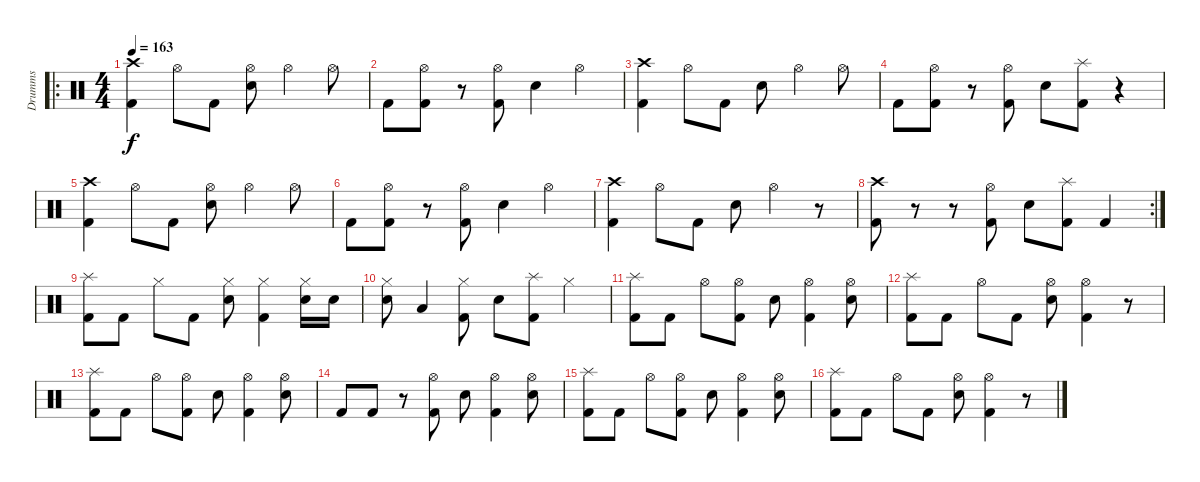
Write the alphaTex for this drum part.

\track ("Drumms" "Drumms") {instrument percussion}
\staff {score}
\articulation defaults
\ro
\ts (4 4)
\tempo 163
\clef neutral
\ks c
("Crash high (hit)" "Kick (hit) 2").4{dy f} "Hi-Hat (open)".8 "Kick (hit) 2".8 ("Hi-Hat (open)" "Snare (hit) 2").8 "Hi-Hat (open)".4 "Hi-Hat (open)".8 |
"Kick (hit) 2".8 ("Hi-Hat (open)" "Kick (hit) 2").8 r.8 ("Hi-Hat (open)" "Kick (hit) 2").8 "Snare (hit) 2".4 "Hi-Hat (open)".4 |
("Crash high (hit)" "Kick (hit) 2").4 "Hi-Hat (open)".8 "Kick (hit) 2".8 "Snare (hit) 2".8 "Hi-Hat (open)".4 "Hi-Hat (open)".8 |
"Kick (hit) 2".8 ("Hi-Hat (open)" "Kick (hit) 2").8 r.8 ("Hi-Hat (open)" "Kick (hit) 2").8 "Snare (hit) 2".8 ("Splash (hit)" "Kick (hit) 2").8 r.4 |
("Crash high (hit)" "Kick (hit) 2").4 "Hi-Hat (open)".8 "Kick (hit) 2".8 ("Hi-Hat (open)" "Snare (hit) 2").8 "Hi-Hat (open)".4 "Hi-Hat (open)".8 |
"Kick (hit) 2".8 ("Hi-Hat (open)" "Kick (hit) 2").8 r.8 ("Hi-Hat (open)" "Kick (hit) 2").8 "Snare (hit) 2".4 "Hi-Hat (open)".4 |
("Crash high (hit)" "Kick (hit) 2").4 "Hi-Hat (open)".8 "Kick (hit) 2".8 "Snare (hit) 2".8 "Hi-Hat (open)".4 r.8 |
\rc 2
("Crash high (hit)" "Kick (hit) 2").8 r.8 r.8 ("Hi-Hat (open)" "Kick (hit) 2").8 "Snare (hit) 2".8 ("Splash (hit)" "Kick (hit) 2").8 "Kick (hit) 2".4 |
("Splash (hit)" "Kick (hit) 2").8 "Kick (hit) 2".8 "Hi-Hat (closed)".8 "Kick (hit) 2".8 ("Hi-Hat (closed)" "Snare (hit) 2").8 ("Hi-Hat (closed)" "Kick (hit) 2").4 ("Hi-Hat (closed)" "Snare (hit) 2").16 "Snare (hit) 2".16 |
("Hi-Hat (closed)" "Snare (hit) 2").8 "Low Tom (hit)".4 ("Hi-Hat (closed)" "Kick (hit) 2").8 "Snare (hit) 2".8 ("Splash (hit)" "Kick (hit) 2").8 "Hi-Hat (closed)".4 |
("Splash (hit)" "Kick (hit) 2").8 "Kick (hit) 2".8 "Hi-Hat (open)".8 ("Hi-Hat (open)" "Kick (hit) 2").8 "Snare (hit) 2".8 ("Hi-Hat (open)" "Kick (hit) 2").4 ("Hi-Hat (open)" "Snare (hit) 2").8 |
("Splash (hit)" "Kick (hit) 2").8 "Kick (hit) 2".8 "Hi-Hat (open)".8 "Kick (hit) 2".8 ("Hi-Hat (open)" "Snare (hit) 2").8 ("Hi-Hat (open)" "Kick (hit) 2").4 r.8 |
("Splash (hit)" "Kick (hit) 2").8 "Kick (hit) 2".8 "Hi-Hat (open)".8 ("Hi-Hat (open)" "Kick (hit) 2").8 "Snare (hit) 2".8 ("Hi-Hat (open)" "Kick (hit) 2").4 ("Hi-Hat (open)" "Snare (hit) 2").8 |
"Kick (hit) 2".8 "Kick (hit) 2".8 r.8 ("Hi-Hat (open)" "Kick (hit) 2").8 "Snare (hit) 2".8 ("Hi-Hat (open)" "Kick (hit) 2").4 ("Hi-Hat (open)" "Snare (hit) 2").8 |
("Splash (hit)" "Kick (hit) 2").8 "Kick (hit) 2".8 "Hi-Hat (open)".8 ("Hi-Hat (open)" "Kick (hit) 2").8 "Snare (hit) 2".8 ("Hi-Hat (open)" "Kick (hit) 2").4 ("Hi-Hat (open)" "Snare (hit) 2").8 |
("Splash (hit)" "Kick (hit) 2").8 "Kick (hit) 2".8 "Hi-Hat (open)".8 "Kick (hit) 2".8 ("Hi-Hat (open)" "Snare (hit) 2").8 ("Hi-Hat (open)" "Kick (hit) 2").4 r.8
